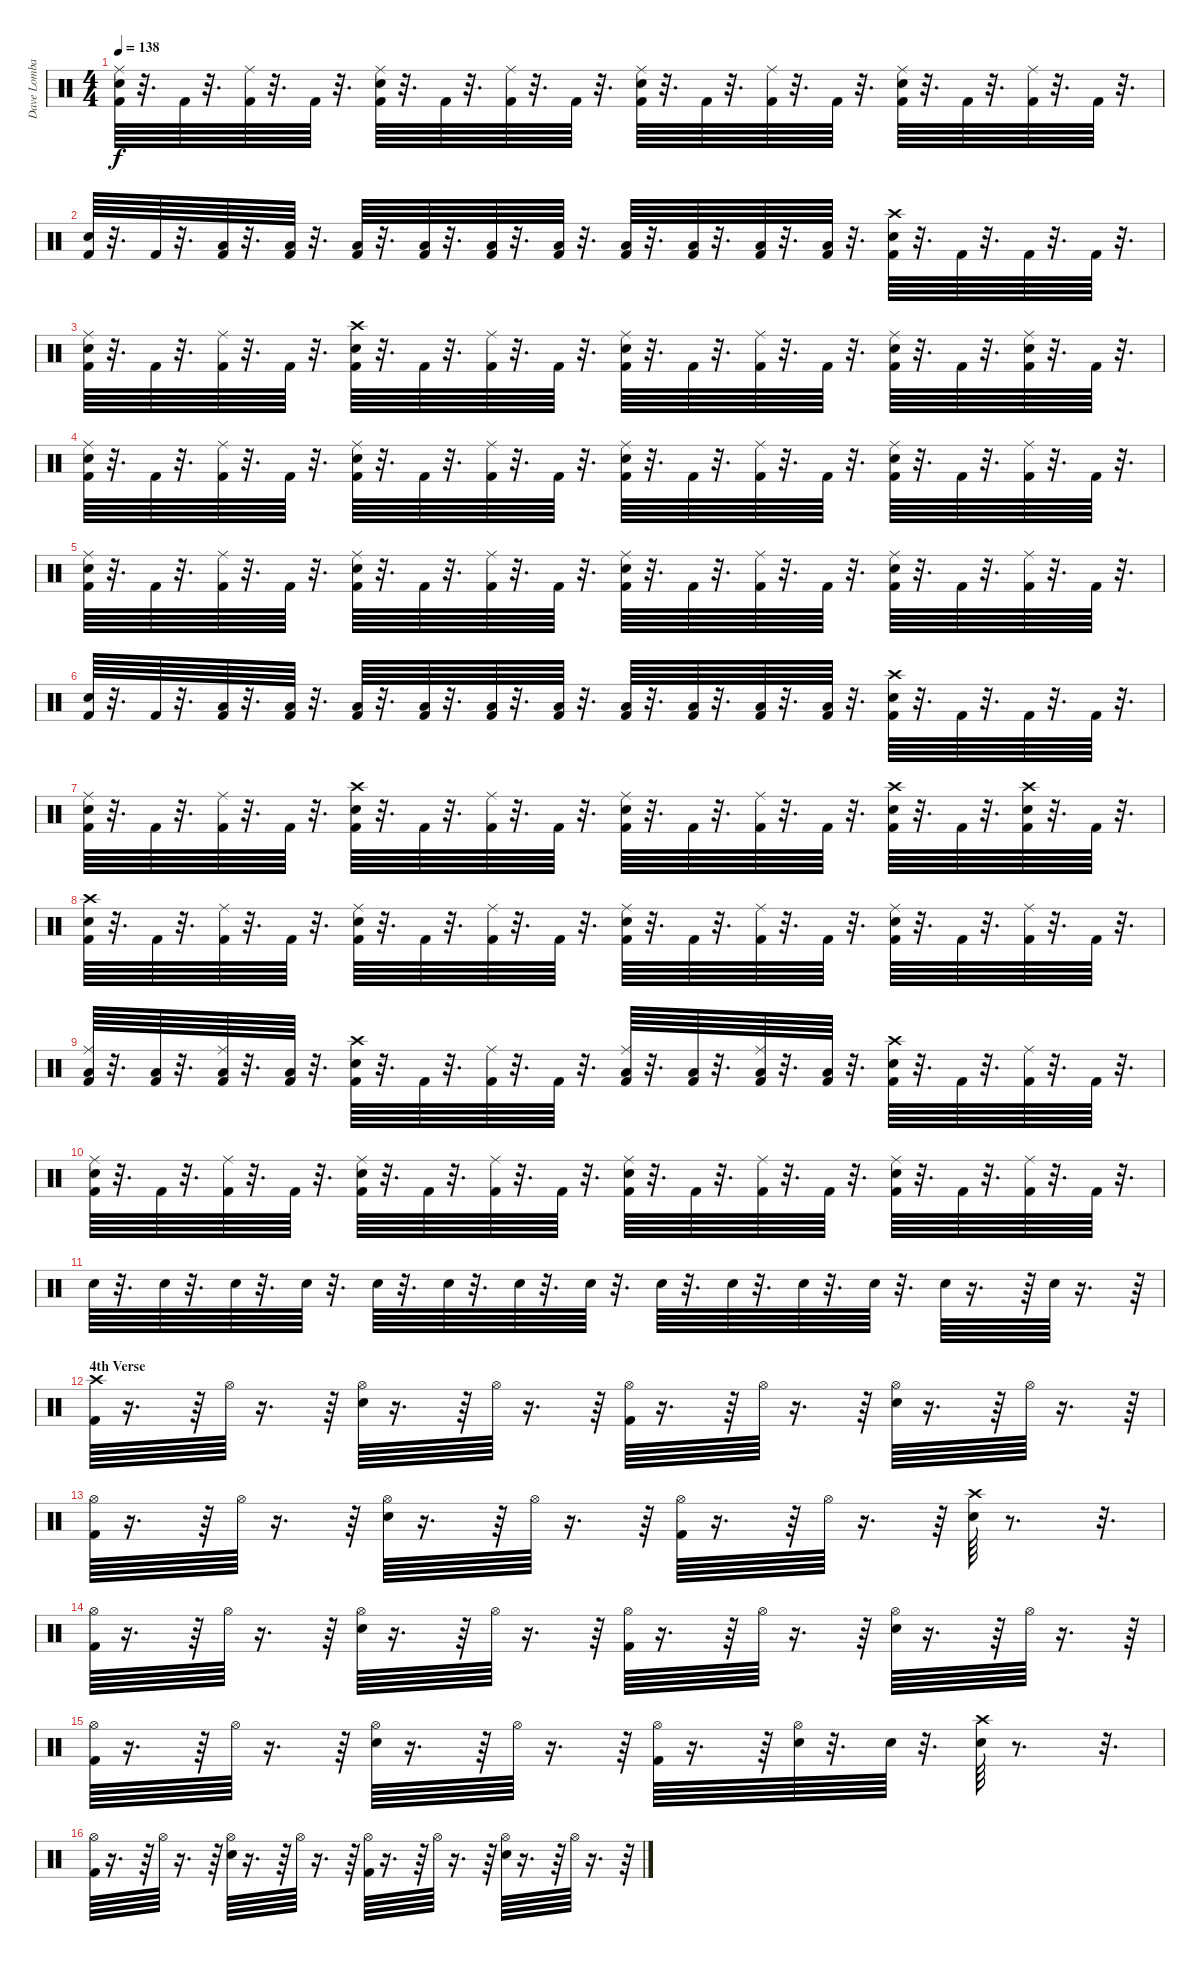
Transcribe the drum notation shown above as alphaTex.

\track ("Dave Lombardo" "Dave Lomba") {instrument percussion}
\staff {score}
\articulation defaults
\ts (4 4)
\tempo 138
\clef neutral
\ks c
("Kick (hit) 2" "Snare (hit) 2" "Ride (middle)").64{dy f} r.32{d} "Kick (hit) 2".64 r.32{d} ("Kick (hit) 2" "Ride (middle)").64 r.32{d} "Kick (hit) 2".64 r.32{d} ("Kick (hit) 2" "Snare (hit) 2" "Ride (middle)").64 r.32{d} "Kick (hit) 2".64 r.32{d} ("Kick (hit) 2" "Ride (middle)").64 r.32{d} "Kick (hit) 2".64 r.32{d} ("Kick (hit) 2" "Snare (hit) 2" "Ride (middle)").64 r.32{d} "Kick (hit) 2".64 r.32{d} ("Kick (hit) 2" "Ride (middle)").64 r.32{d} "Kick (hit) 2".64 r.32{d} ("Kick (hit) 2" "Snare (hit) 2" "Ride (middle)").64 r.32{d} "Kick (hit) 2".64 r.32{d} ("Kick (hit) 2" "Ride (middle)").64 r.32{d} "Kick (hit) 2".64 r.32{d} |
("Kick (hit) 2" "Snare (hit) 2").64 r.32{d} "Kick (hit) 2".64 r.32{d} ("Kick (hit) 2" "Low Tom (hit)").64 r.32{d} ("Kick (hit) 2" "Low Tom (hit)").64 r.32{d} ("Kick (hit) 2" "Low Tom (hit)").64 r.32{d} ("Kick (hit) 2" "Low Tom (hit)").64 r.32{d} ("Kick (hit) 2" "Low Tom (hit)").64 r.32{d} ("Kick (hit) 2" "Low Tom (hit)").64 r.32{d} ("Kick (hit) 2" "Low Tom (hit)").64 r.32{d} ("Kick (hit) 2" "Low Tom (hit)").64 r.32{d} ("Kick (hit) 2" "Low Tom (hit)").64 r.32{d} ("Kick (hit) 2" "Low Tom (hit)").64 r.32{d} ("Kick (hit) 2" "Snare (hit) 2" "Crash high (hit)").64 r.32{d} "Kick (hit) 2".64 r.32{d} "Kick (hit) 2".64 r.32{d} "Kick (hit) 2".64 r.32{d} |
("Kick (hit) 2" "Snare (hit) 2" "Ride (middle)").64 r.32{d} "Kick (hit) 2".64 r.32{d} ("Kick (hit) 2" "Ride (middle)").64 r.32{d} "Kick (hit) 2".64 r.32{d} ("Kick (hit) 2" "Snare (hit) 2" "Crash high (hit)").64 r.32{d} "Kick (hit) 2".64 r.32{d} ("Kick (hit) 2" "Ride (middle)").64 r.32{d} "Kick (hit) 2".64 r.32{d} ("Kick (hit) 2" "Snare (hit) 2" "Ride (middle)").64 r.32{d} "Kick (hit) 2".64 r.32{d} ("Kick (hit) 2" "Ride (middle)").64 r.32{d} "Kick (hit) 2".64 r.32{d} ("Kick (hit) 2" "Snare (hit) 2" "Ride (middle)").64 r.32{d} "Kick (hit) 2".64 r.32{d} ("Kick (hit) 2" "Ride (middle)" "Snare (hit) 2").64 r.32{d} "Kick (hit) 2".64 r.32{d} |
("Kick (hit) 2" "Snare (hit) 2" "Ride (middle)").64 r.32{d} "Kick (hit) 2".64 r.32{d} ("Kick (hit) 2" "Ride (middle)").64 r.32{d} "Kick (hit) 2".64 r.32{d} ("Kick (hit) 2" "Snare (hit) 2" "Ride (middle)").64 r.32{d} "Kick (hit) 2".64 r.32{d} ("Kick (hit) 2" "Ride (middle)").64 r.32{d} "Kick (hit) 2".64 r.32{d} ("Kick (hit) 2" "Snare (hit) 2" "Ride (middle)").64 r.32{d} "Kick (hit) 2".64 r.32{d} ("Kick (hit) 2" "Ride (middle)").64 r.32{d} "Kick (hit) 2".64 r.32{d} ("Kick (hit) 2" "Snare (hit) 2" "Ride (middle)").64 r.32{d} "Kick (hit) 2".64 r.32{d} ("Kick (hit) 2" "Ride (middle)").64 r.32{d} "Kick (hit) 2".64 r.32{d} |
("Kick (hit) 2" "Snare (hit) 2" "Ride (middle)").64 r.32{d} "Kick (hit) 2".64 r.32{d} ("Kick (hit) 2" "Ride (middle)").64 r.32{d} "Kick (hit) 2".64 r.32{d} ("Kick (hit) 2" "Snare (hit) 2" "Ride (middle)").64 r.32{d} "Kick (hit) 2".64 r.32{d} ("Kick (hit) 2" "Ride (middle)").64 r.32{d} "Kick (hit) 2".64 r.32{d} ("Kick (hit) 2" "Snare (hit) 2" "Ride (middle)").64 r.32{d} "Kick (hit) 2".64 r.32{d} ("Kick (hit) 2" "Ride (middle)").64 r.32{d} "Kick (hit) 2".64 r.32{d} ("Kick (hit) 2" "Snare (hit) 2" "Ride (middle)").64 r.32{d} "Kick (hit) 2".64 r.32{d} ("Kick (hit) 2" "Ride (middle)").64 r.32{d} "Kick (hit) 2".64 r.32{d} |
("Kick (hit) 2" "Snare (hit) 2").64 r.32{d} "Kick (hit) 2".64 r.32{d} ("Kick (hit) 2" "Low Tom (hit)").64 r.32{d} ("Kick (hit) 2" "Low Tom (hit)").64 r.32{d} ("Kick (hit) 2" "Low Tom (hit)").64 r.32{d} ("Kick (hit) 2" "Low Tom (hit)").64 r.32{d} ("Kick (hit) 2" "Low Tom (hit)").64 r.32{d} ("Kick (hit) 2" "Low Tom (hit)").64 r.32{d} ("Kick (hit) 2" "Low Tom (hit)").64 r.32{d} ("Kick (hit) 2" "Low Tom (hit)").64 r.32{d} ("Kick (hit) 2" "Low Tom (hit)").64 r.32{d} ("Kick (hit) 2" "Low Tom (hit)").64 r.32{d} ("Kick (hit) 2" "Snare (hit) 2" "Crash high (hit)").64 r.32{d} "Kick (hit) 2".64 r.32{d} "Kick (hit) 2".64 r.32{d} "Kick (hit) 2".64 r.32{d} |
("Kick (hit) 2" "Snare (hit) 2" "Ride (middle)").64 r.32{d} "Kick (hit) 2".64 r.32{d} ("Kick (hit) 2" "Ride (middle)").64 r.32{d} "Kick (hit) 2".64 r.32{d} ("Kick (hit) 2" "Snare (hit) 2" "Crash high (hit)").64 r.32{d} "Kick (hit) 2".64 r.32{d} ("Kick (hit) 2" "Ride (middle)").64 r.32{d} "Kick (hit) 2".64 r.32{d} ("Kick (hit) 2" "Snare (hit) 2" "Ride (middle)").64 r.32{d} "Kick (hit) 2".64 r.32{d} ("Kick (hit) 2" "Ride (middle)").64 r.32{d} "Kick (hit) 2".64 r.32{d} ("Kick (hit) 2" "Snare (hit) 2" "Crash high (hit)").64 r.32{d} "Kick (hit) 2".64 r.32{d} ("Kick (hit) 2" "Crash high (hit)" "Snare (hit) 2").64 r.32{d} "Kick (hit) 2".64 r.32{d} |
("Kick (hit) 2" "Snare (hit) 2" "Crash high (hit)").64 r.32{d} "Kick (hit) 2".64 r.32{d} ("Kick (hit) 2" "Ride (middle)").64 r.32{d} "Kick (hit) 2".64 r.32{d} ("Kick (hit) 2" "Snare (hit) 2" "Ride (middle)").64 r.32{d} "Kick (hit) 2".64 r.32{d} ("Kick (hit) 2" "Ride (middle)").64 r.32{d} "Kick (hit) 2".64 r.32{d} ("Kick (hit) 2" "Snare (hit) 2" "Ride (middle)").64 r.32{d} "Kick (hit) 2".64 r.32{d} ("Kick (hit) 2" "Ride (middle)").64 r.32{d} "Kick (hit) 2".64 r.32{d} ("Kick (hit) 2" "Snare (hit) 2" "Ride (middle)").64 r.32{d} "Kick (hit) 2".64 r.32{d} ("Kick (hit) 2" "Ride (middle)").64 r.32{d} "Kick (hit) 2".64 r.32{d} |
("Kick (hit) 2" "Ride (middle)" "Low Tom (hit)").64 r.32{d} ("Kick (hit) 2" "Low Tom (hit)").64 r.32{d} ("Kick (hit) 2" "Ride (middle)" "Low Tom (hit)").64 r.32{d} ("Kick (hit) 2" "Low Tom (hit)").64 r.32{d} ("Kick (hit) 2" "Snare (hit) 2" "Crash high (hit)").64 r.32{d} "Kick (hit) 2".64 r.32{d} ("Kick (hit) 2" "Ride (middle)").64 r.32{d} "Kick (hit) 2".64 r.32{d} ("Kick (hit) 2" "Ride (middle)" "Low Tom (hit)").64 r.32{d} ("Kick (hit) 2" "Low Tom (hit)").64 r.32{d} ("Kick (hit) 2" "Ride (middle)" "Low Tom (hit)").64 r.32{d} ("Kick (hit) 2" "Low Tom (hit)").64 r.32{d} ("Kick (hit) 2" "Snare (hit) 2" "Crash high (hit)").64 r.32{d} "Kick (hit) 2".64 r.32{d} ("Kick (hit) 2" "Ride (middle)").64 r.32{d} "Kick (hit) 2".64 r.32{d} |
("Kick (hit) 2" "Snare (hit) 2" "Ride (middle)").64 r.32{d} "Kick (hit) 2".64 r.32{d} ("Kick (hit) 2" "Ride (middle)").64 r.32{d} "Kick (hit) 2".64 r.32{d} ("Kick (hit) 2" "Snare (hit) 2" "Ride (middle)").64 r.32{d} "Kick (hit) 2".64 r.32{d} ("Kick (hit) 2" "Ride (middle)").64 r.32{d} "Kick (hit) 2".64 r.32{d} ("Kick (hit) 2" "Snare (hit) 2" "Ride (middle)").64 r.32{d} "Kick (hit) 2".64 r.32{d} ("Kick (hit) 2" "Ride (middle)").64 r.32{d} "Kick (hit) 2".64 r.32{d} ("Kick (hit) 2" "Snare (hit) 2" "Ride (middle)").64 r.32{d} "Kick (hit) 2".64 r.32{d} ("Kick (hit) 2" "Ride (middle)").64 r.32{d} "Kick (hit) 2".64 r.32{d} |
"Snare (hit) 2".64 r.32{d} "Snare (hit) 2".64 r.32{d} "Snare (hit) 2".64 r.32{d} "Snare (hit) 2".64 r.32{d} "Snare (hit) 2".64 r.32{d} "Snare (hit) 2".64 r.32{d} "Snare (hit) 2".64 r.32{d} "Snare (hit) 2".64 r.32{d} "Snare (hit) 2".64 r.32{d} "Snare (hit) 2".64 r.32{d} "Snare (hit) 2".64 r.32{d} "Snare (hit) 2".64 r.32{d} "Snare (hit) 2".64 r.16{d} r.64 "Snare (hit) 2".64 r.16{d} r.64 |
\section ("" "4th Verse")
("Kick (hit) 2" "Crash high (hit)").64 r.16{d} r.64 "Hi-Hat (open)".64 r.16{d} r.64 ("Snare (hit) 2" "Hi-Hat (open)").64 r.16{d} r.64 "Hi-Hat (open)".64 r.16{d} r.64 ("Kick (hit) 2" "Hi-Hat (open)").64 r.16{d} r.64 "Hi-Hat (open)".64 r.16{d} r.64 ("Snare (hit) 2" "Hi-Hat (open)").64 r.16{d} r.64 "Hi-Hat (open)".64 r.16{d} r.64 |
("Kick (hit) 2" "Hi-Hat (open)").64 r.16{d} r.64 "Hi-Hat (open)".64 r.16{d} r.64 ("Snare (hit) 2" "Hi-Hat (open)").64 r.16{d} r.64 "Hi-Hat (open)".64 r.16{d} r.64 ("Kick (hit) 2" "Hi-Hat (open)").64 r.16{d} r.64 "Hi-Hat (open)".64 r.16{d} r.64 ("Snare (hit) 2" "Crash high (hit)").64 r.8{d} r.32{d} |
("Kick (hit) 2" "Hi-Hat (open)").64 r.16{d} r.64 "Hi-Hat (open)".64 r.16{d} r.64 ("Snare (hit) 2" "Hi-Hat (open)").64 r.16{d} r.64 "Hi-Hat (open)".64 r.16{d} r.64 ("Kick (hit) 2" "Hi-Hat (open)").64 r.16{d} r.64 "Hi-Hat (open)".64 r.16{d} r.64 ("Snare (hit) 2" "Hi-Hat (open)").64 r.16{d} r.64 "Hi-Hat (open)".64 r.16{d} r.64 |
("Kick (hit) 2" "Hi-Hat (open)").64 r.16{d} r.64 "Hi-Hat (open)".64 r.16{d} r.64 ("Snare (hit) 2" "Hi-Hat (open)").64 r.16{d} r.64 "Hi-Hat (open)".64 r.16{d} r.64 ("Kick (hit) 2" "Hi-Hat (open)").64 r.16{d} r.64 ("Hi-Hat (open)" "Snare (hit) 2").64 r.32{d} "Snare (hit) 2".64 r.32{d} ("Crash high (hit)" "Snare (hit) 2").64 r.8{d} r.32{d} |
("Kick (hit) 2" "Hi-Hat (open)").64 r.16{d} r.64 "Hi-Hat (open)".64 r.16{d} r.64 ("Snare (hit) 2" "Hi-Hat (open)").64 r.16{d} r.64 "Hi-Hat (open)".64 r.16{d} r.64 ("Kick (hit) 2" "Hi-Hat (open)").64 r.16{d} r.64 "Hi-Hat (open)".64 r.16{d} r.64 ("Snare (hit) 2" "Hi-Hat (open)").64 r.16{d} r.64 "Hi-Hat (open)".64 r.16{d} r.64
